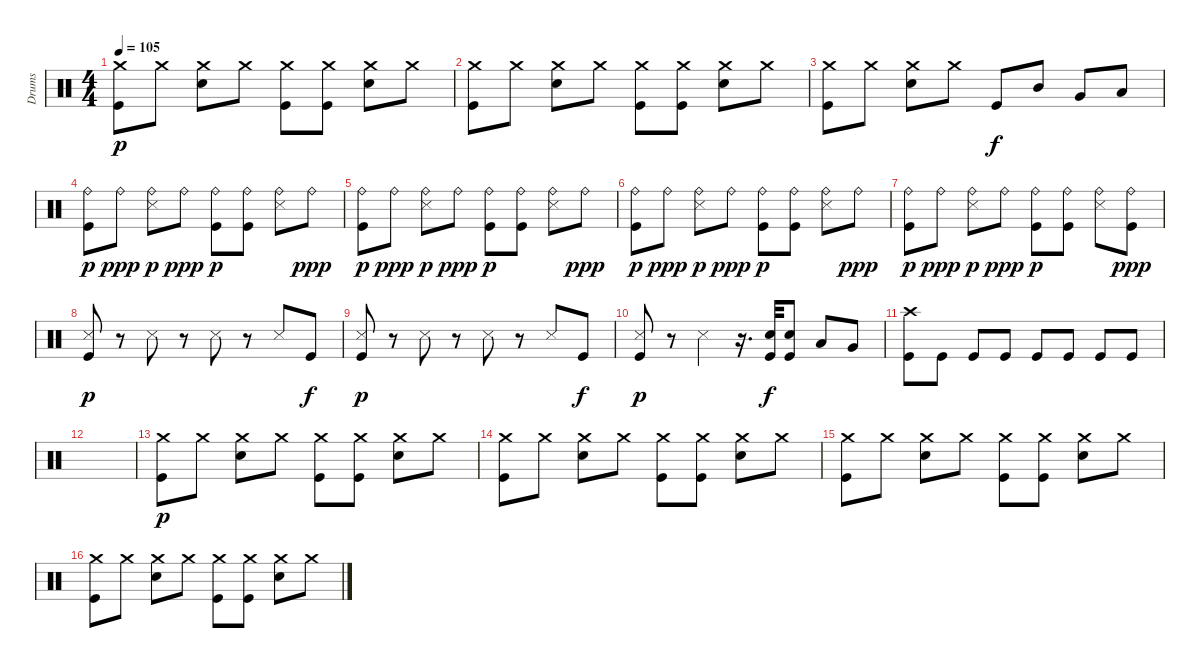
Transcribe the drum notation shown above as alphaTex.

\track ("Drums" "Drums") {instrument percussion}
\staff {score}
\articulation defaults
\ts (4 4)
\tempo 105
\clef neutral
\ks c
("Crash medium (hit)" "Kick (hit)").8{dy p} "Crash medium (hit)".8 ("Crash medium (hit)" "Electric Snare (hit)").8 "Crash medium (hit)".8 ("Crash medium (hit)" "Kick (hit)").8 ("Crash medium (hit)" "Kick (hit)").8 ("Crash medium (hit)" "Electric Snare (hit)").8 "Crash medium (hit)".8 |
("Crash medium (hit)" "Kick (hit)").8 "Crash medium (hit)".8 ("Crash medium (hit)" "Electric Snare (hit)").8 "Crash medium (hit)".8 ("Crash medium (hit)" "Kick (hit)").8 ("Crash medium (hit)" "Kick (hit)").8 ("Crash medium (hit)" "Electric Snare (hit)").8 "Crash medium (hit)".8 |
("Crash medium (hit)" "Kick (hit)").8 "Crash medium (hit)".8 ("Crash medium (hit)" "Electric Snare (hit)").8 "Crash medium (hit)".8 "Kick (hit)".8{dy f} "Mid Tom (hit)".8 "Very Low Tom (hit)".8 "Low Floor Tom (hit)".8 |
("Ride (bell)" "Kick (hit)").8{dy p} "Ride (bell)".8{dy ppp} ("Ride (bell)" "Snare (side stick) 3").8{dy p} "Ride (bell)".8{dy ppp} ("Ride (bell)" "Kick (hit)").8{dy p} ("Ride (bell)" "Kick (hit)").8 ("Ride (bell)" "Snare (side stick) 3").8 "Ride (bell)".8{dy ppp} |
("Ride (bell)" "Kick (hit)").8{dy p} "Ride (bell)".8{dy ppp} ("Ride (bell)" "Snare (side stick) 3").8{dy p} "Ride (bell)".8{dy ppp} ("Ride (bell)" "Kick (hit)").8{dy p} ("Ride (bell)" "Kick (hit)").8 ("Ride (bell)" "Snare (side stick) 3").8 "Ride (bell)".8{dy ppp} |
("Ride (bell)" "Kick (hit)").8{dy p} "Ride (bell)".8{dy ppp} ("Ride (bell)" "Snare (side stick) 3").8{dy p} "Ride (bell)".8{dy ppp} ("Ride (bell)" "Kick (hit)").8{dy p} ("Ride (bell)" "Kick (hit)").8 ("Ride (bell)" "Snare (side stick) 3").8 "Ride (bell)".8{dy ppp} |
("Ride (bell)" "Kick (hit)").8{dy p} "Ride (bell)".8{dy ppp} ("Ride (bell)" "Snare (side stick) 3").8{dy p} "Ride (bell)".8{dy ppp} ("Ride (bell)" "Kick (hit)").8{dy p} ("Ride (bell)" "Kick (hit)").8 ("Ride (bell)" "Snare (side stick) 3").8 ("Ride (bell)" "Kick (hit)").8{dy ppp} |
("Snare (side stick) 3" "Kick (hit)").8{dy p} r.8 "Snare (side stick) 3".8 r.8 "Snare (side stick) 3".8 r.8 "Snare (side stick) 3".8 "Kick (hit)".8{dy f} |
("Snare (side stick) 3" "Kick (hit)").8{dy p} r.8 "Snare (side stick) 3".8 r.8 "Snare (side stick) 3".8 r.8 "Snare (side stick) 3".8 "Kick (hit)".8{dy f} |
("Snare (side stick) 3" "Kick (hit)").8{dy p} r.8 "Snare (side stick) 3".4 r.16{d} ("Electric Snare (hit)" "Kick (hit)").32{dy f} ("Electric Snare (hit)" "Kick (hit)").8 "Low Tom (hit)".8 "Very Low Tom (hit)".8 |
("Crash high (hit)" "Kick (hit)").8 "Kick (hit)".8 "Kick (hit)".8 "Kick (hit)".8 "Kick (hit)".8 "Kick (hit)".8 "Kick (hit)".8 "Kick (hit)".8 |
|
("Crash medium (hit)" "Kick (hit)").8{dy p} "Crash medium (hit)".8 ("Crash medium (hit)" "Electric Snare (hit)").8 "Crash medium (hit)".8 ("Crash medium (hit)" "Kick (hit)").8 ("Crash medium (hit)" "Kick (hit)").8 ("Crash medium (hit)" "Electric Snare (hit)").8 "Crash medium (hit)".8 |
("Crash medium (hit)" "Kick (hit)").8 "Crash medium (hit)".8 ("Crash medium (hit)" "Electric Snare (hit)").8 "Crash medium (hit)".8 ("Crash medium (hit)" "Kick (hit)").8 ("Crash medium (hit)" "Kick (hit)").8 ("Crash medium (hit)" "Electric Snare (hit)").8 "Crash medium (hit)".8 |
("Crash medium (hit)" "Kick (hit)").8 "Crash medium (hit)".8 ("Crash medium (hit)" "Electric Snare (hit)").8 "Crash medium (hit)".8 ("Crash medium (hit)" "Kick (hit)").8 ("Crash medium (hit)" "Kick (hit)").8 ("Crash medium (hit)" "Electric Snare (hit)").8 "Crash medium (hit)".8 |
("Crash medium (hit)" "Kick (hit)").8 "Crash medium (hit)".8 ("Crash medium (hit)" "Electric Snare (hit)").8 "Crash medium (hit)".8 ("Crash medium (hit)" "Kick (hit)").8 ("Crash medium (hit)" "Kick (hit)").8 ("Crash medium (hit)" "Electric Snare (hit)").8 "Crash medium (hit)".8
